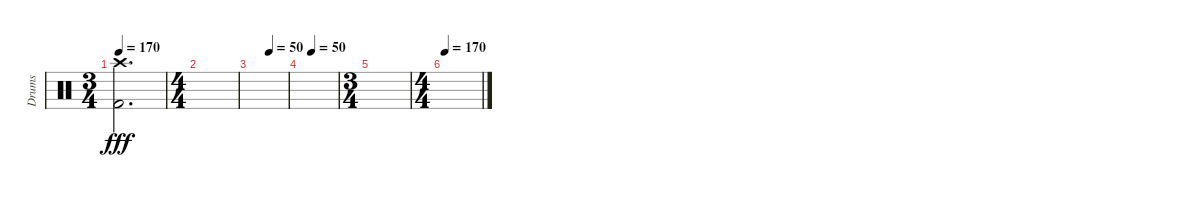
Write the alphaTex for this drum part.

\track ("Drums" "Drums") {instrument percussion}
\staff {score}
\articulation defaults
\ts (3 4)
\tempo 170
\clef neutral
\ks c
("Crash high (hit)" "Kick (hit) 2").2{d dy fff} |
\ts (4 4)
|
\tempo (50 0.5)
|
\tempo (50 0.2916666666666667)
|
\ts (3 4)
|
\ts (4 4)
\tempo 170
